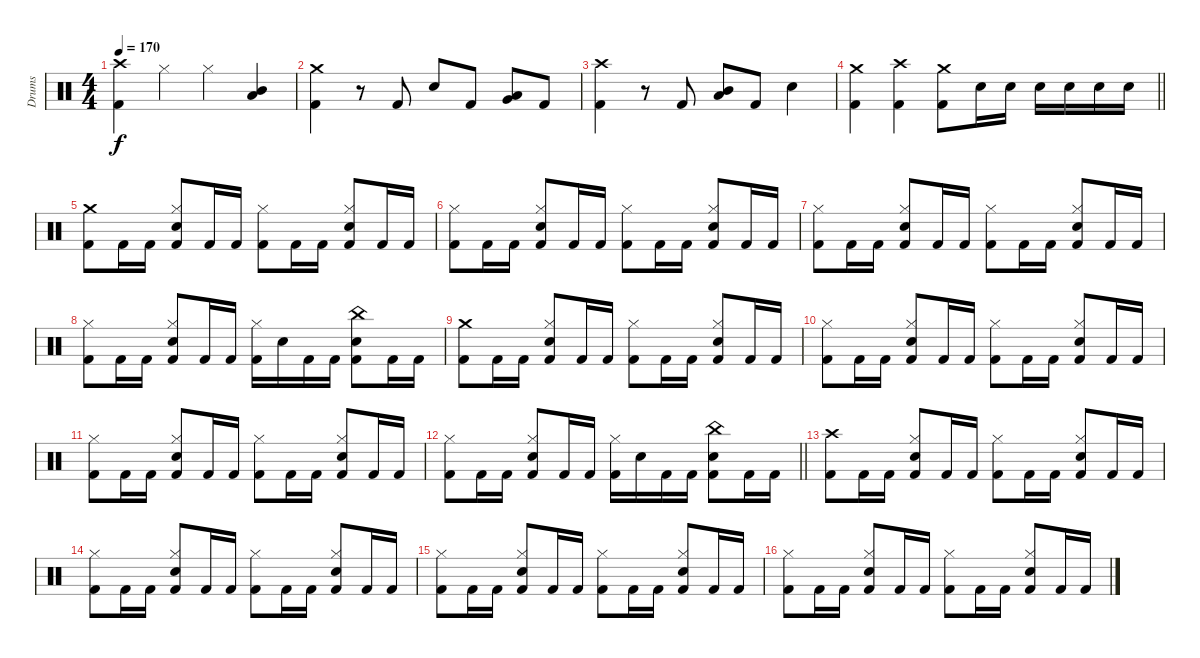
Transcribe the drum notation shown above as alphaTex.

\track ("Drums" "Drums") {instrument percussion}
\staff {score}
\articulation defaults
\ts (4 4)
\tempo 170
\clef neutral
\ks c
("Crash high (hit)" "Kick (hit) 2").4{dy f} "Hi-Hat (closed)".4 "Hi-Hat (closed)".4 ("Mid Tom (hit)" "Low Tom (hit)").4 |
("Crash medium (hit)" "Kick (hit) 2").4 r.8 "Kick (hit) 2".8 "Snare (hit) 2".8 "Kick (hit) 2".8 ("Low Tom (hit)" "Very Low Tom (hit)").8 "Kick (hit) 2".8 |
("Crash high (hit)" "Kick (hit) 2").4 r.8 "Kick (hit) 2".8 ("Mid Tom (hit)" "Low Tom (hit)").8 "Kick (hit) 2".8 "Snare (hit) 2".4 |
\barLineRight lightlight
("Crash medium (hit)" "Kick (hit) 2").4 ("Crash high (hit)" "Kick (hit) 2").4 ("Crash medium (hit)" "Kick (hit) 2").8 "Snare (hit) 2".16 "Snare (hit) 2".16 "Snare (hit) 2".16 "Snare (hit) 2".16 "Snare (hit) 2".16 "Snare (hit) 2".16 |
("Crash medium (hit)" "Kick (hit) 2").8 "Kick (hit) 2".16 "Kick (hit) 2".16 ("Hi-Hat (closed)" "Snare (hit) 2" "Kick (hit) 2").8 "Kick (hit) 2".16 "Kick (hit) 2".16 ("Hi-Hat (closed)" "Kick (hit) 2").8 "Kick (hit) 2".16 "Kick (hit) 2".16 ("Hi-Hat (closed)" "Snare (hit) 2" "Kick (hit) 2").8 "Kick (hit) 2".16 "Kick (hit) 2".16 |
("Hi-Hat (closed)" "Kick (hit) 2").8 "Kick (hit) 2".16 "Kick (hit) 2".16 ("Hi-Hat (closed)" "Snare (hit) 2" "Kick (hit) 2").8 "Kick (hit) 2".16 "Kick (hit) 2".16 ("Hi-Hat (closed)" "Kick (hit) 2").8 "Kick (hit) 2".16 "Kick (hit) 2".16 ("Hi-Hat (closed)" "Snare (hit) 2" "Kick (hit) 2").8 "Kick (hit) 2".16 "Kick (hit) 2".16 |
("Hi-Hat (closed)" "Kick (hit) 2").8 "Kick (hit) 2".16 "Kick (hit) 2".16 ("Hi-Hat (closed)" "Snare (hit) 2" "Kick (hit) 2").8 "Kick (hit) 2".16 "Kick (hit) 2".16 ("Hi-Hat (closed)" "Kick (hit) 2").8 "Kick (hit) 2".16 "Kick (hit) 2".16 ("Hi-Hat (closed)" "Snare (hit) 2" "Kick (hit) 2").8 "Kick (hit) 2".16 "Kick (hit) 2".16 |
("Hi-Hat (closed)" "Kick (hit) 2").8 "Kick (hit) 2".16 "Kick (hit) 2".16 ("Hi-Hat (closed)" "Snare (hit) 2" "Kick (hit) 2").8 "Kick (hit) 2".16 "Kick (hit) 2".16 ("Hi-Hat (closed)" "Kick (hit) 2").16 "Snare (hit) 2".16 "Kick (hit) 2".16 "Kick (hit) 2".16 ("China (hit)" "Snare (hit) 2" "Kick (hit) 2").8 "Kick (hit) 2".16 "Kick (hit) 2".16 |
("Crash medium (hit)" "Kick (hit) 2").8 "Kick (hit) 2".16 "Kick (hit) 2".16 ("Hi-Hat (closed)" "Snare (hit) 2" "Kick (hit) 2").8 "Kick (hit) 2".16 "Kick (hit) 2".16 ("Hi-Hat (closed)" "Kick (hit) 2").8 "Kick (hit) 2".16 "Kick (hit) 2".16 ("Hi-Hat (closed)" "Snare (hit) 2" "Kick (hit) 2").8 "Kick (hit) 2".16 "Kick (hit) 2".16 |
("Hi-Hat (closed)" "Kick (hit) 2").8 "Kick (hit) 2".16 "Kick (hit) 2".16 ("Hi-Hat (closed)" "Snare (hit) 2" "Kick (hit) 2").8 "Kick (hit) 2".16 "Kick (hit) 2".16 ("Hi-Hat (closed)" "Kick (hit) 2").8 "Kick (hit) 2".16 "Kick (hit) 2".16 ("Hi-Hat (closed)" "Snare (hit) 2" "Kick (hit) 2").8 "Kick (hit) 2".16 "Kick (hit) 2".16 |
("Hi-Hat (closed)" "Kick (hit) 2").8 "Kick (hit) 2".16 "Kick (hit) 2".16 ("Hi-Hat (closed)" "Snare (hit) 2" "Kick (hit) 2").8 "Kick (hit) 2".16 "Kick (hit) 2".16 ("Hi-Hat (closed)" "Kick (hit) 2").8 "Kick (hit) 2".16 "Kick (hit) 2".16 ("Hi-Hat (closed)" "Snare (hit) 2" "Kick (hit) 2").8 "Kick (hit) 2".16 "Kick (hit) 2".16 |
\barLineRight lightlight
("Hi-Hat (closed)" "Kick (hit) 2").8 "Kick (hit) 2".16 "Kick (hit) 2".16 ("Hi-Hat (closed)" "Snare (hit) 2" "Kick (hit) 2").8 "Kick (hit) 2".16 "Kick (hit) 2".16 ("Hi-Hat (closed)" "Kick (hit) 2").16 "Snare (hit) 2".16 "Kick (hit) 2".16 "Kick (hit) 2".16 ("China (hit)" "Snare (hit) 2" "Kick (hit) 2").8 "Kick (hit) 2".16 "Kick (hit) 2".16 |
("Crash high (hit)" "Kick (hit) 2").8 "Kick (hit) 2".16 "Kick (hit) 2".16 ("Hi-Hat (closed)" "Snare (hit) 2" "Kick (hit) 2").8 "Kick (hit) 2".16 "Kick (hit) 2".16 ("Hi-Hat (closed)" "Kick (hit) 2").8 "Kick (hit) 2".16 "Kick (hit) 2".16 ("Hi-Hat (closed)" "Snare (hit) 2" "Kick (hit) 2").8 "Kick (hit) 2".16 "Kick (hit) 2".16 |
("Hi-Hat (closed)" "Kick (hit) 2").8 "Kick (hit) 2".16 "Kick (hit) 2".16 ("Hi-Hat (closed)" "Snare (hit) 2" "Kick (hit) 2").8 "Kick (hit) 2".16 "Kick (hit) 2".16 ("Hi-Hat (closed)" "Kick (hit) 2").8 "Kick (hit) 2".16 "Kick (hit) 2".16 ("Hi-Hat (closed)" "Snare (hit) 2" "Kick (hit) 2").8 "Kick (hit) 2".16 "Kick (hit) 2".16 |
("Hi-Hat (closed)" "Kick (hit) 2").8 "Kick (hit) 2".16 "Kick (hit) 2".16 ("Hi-Hat (closed)" "Snare (hit) 2" "Kick (hit) 2").8 "Kick (hit) 2".16 "Kick (hit) 2".16 ("Hi-Hat (closed)" "Kick (hit) 2").8 "Kick (hit) 2".16 "Kick (hit) 2".16 ("Hi-Hat (closed)" "Snare (hit) 2" "Kick (hit) 2").8 "Kick (hit) 2".16 "Kick (hit) 2".16 |
("Hi-Hat (closed)" "Kick (hit) 2").8 "Kick (hit) 2".16 "Kick (hit) 2".16 ("Hi-Hat (closed)" "Snare (hit) 2" "Kick (hit) 2").8 "Kick (hit) 2".16 "Kick (hit) 2".16 ("Hi-Hat (closed)" "Kick (hit) 2").8 "Kick (hit) 2".16 "Kick (hit) 2".16 ("Hi-Hat (closed)" "Snare (hit) 2" "Kick (hit) 2").8 "Kick (hit) 2".16 "Kick (hit) 2".16
